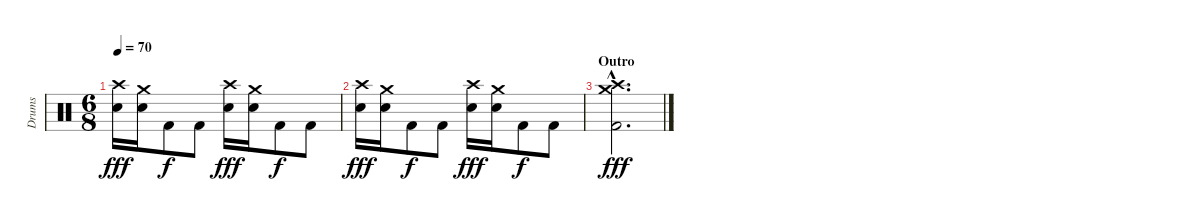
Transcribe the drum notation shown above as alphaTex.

\track ("Drums" "Drums") {instrument percussion}
\staff {score}
\articulation defaults
\ts (6 8)
\tempo 70
\clef neutral
\ks c
("Crash high (hit)" "Electric Snare (hit)").16{dy fff} ("Crash medium (hit)" "Electric Snare (hit)").16 "Kick (hit) 2".8{dy f} "Kick (hit) 2".8 ("Crash high (hit)" "Electric Snare (hit)").16{dy fff} ("Crash medium (hit)" "Electric Snare (hit)").16 "Kick (hit) 2".8{dy f} "Kick (hit) 2".8 |
("Crash high (hit)" "Electric Snare (hit)").16{dy fff} ("Crash medium (hit)" "Electric Snare (hit)").16 "Kick (hit) 2".8{dy f} "Kick (hit) 2".8 ("Crash high (hit)" "Electric Snare (hit)").16{dy fff} ("Crash medium (hit)" "Electric Snare (hit)").16 "Kick (hit) 2".8{dy f} "Kick (hit) 2".8 |
\section ("" "Outro")
("Crash high (hit)"{hac} "Crash medium (hit)"{hac} "Kick (hit) 2"{hac}).2{d dy fff}
